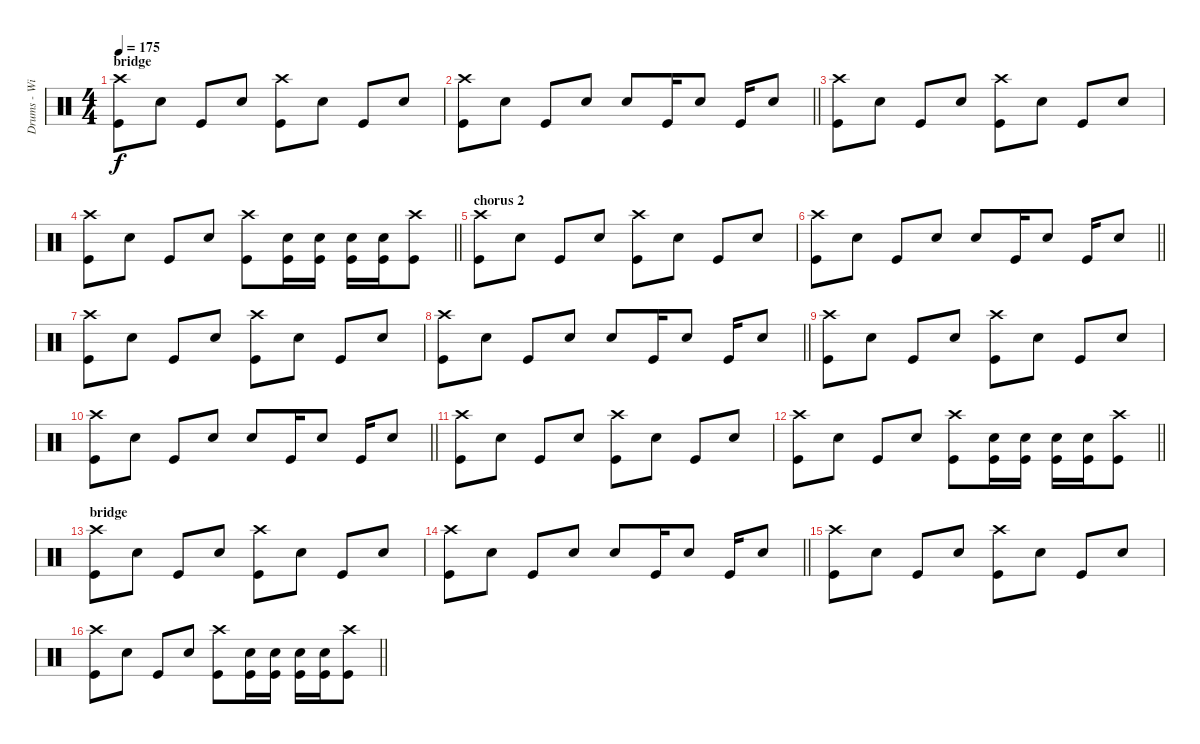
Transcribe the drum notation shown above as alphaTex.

\track ("Drums - Willie Buchan" "Drums - Wi") {instrument percussion}
\staff {score}
\articulation defaults
\ts (4 4)
\section ("" "bridge")
\tempo 175
\clef neutral
\ks c
("Crash high (hit)" "Kick (hit)").8{dy f} "Snare (hit) 2".8 "Kick (hit)".8 "Snare (hit) 2".8 ("Crash high (hit)" "Kick (hit)").8 "Snare (hit) 2".8 "Kick (hit)".8 "Snare (hit) 2".8 |
\barLineRight lightlight
("Crash high (hit)" "Kick (hit)").8 "Snare (hit) 2".8 "Kick (hit)".8 "Snare (hit) 2".8 "Snare (hit) 2".8 "Kick (hit)".16 "Snare (hit) 2".8 "Kick (hit)".16 "Snare (hit) 2".8 |
("Crash high (hit)" "Kick (hit)").8 "Snare (hit) 2".8 "Kick (hit)".8 "Snare (hit) 2".8 ("Crash high (hit)" "Kick (hit)").8 "Snare (hit) 2".8 "Kick (hit)".8 "Snare (hit) 2".8 |
\barLineRight lightlight
("Crash high (hit)" "Kick (hit)").8 "Snare (hit) 2".8 "Kick (hit)".8 "Snare (hit) 2".8 ("Crash high (hit)" "Kick (hit)").8 ("Snare (hit) 2" "Kick (hit)").16 ("Snare (hit) 2" "Kick (hit)").16 ("Snare (hit) 2" "Kick (hit)").16 ("Snare (hit) 2" "Kick (hit)").16 ("Crash high (hit)" "Kick (hit)").8 |
\section ("" "chorus 2")
("Crash high (hit)" "Kick (hit)").8 "Snare (hit) 2".8 "Kick (hit)".8 "Snare (hit) 2".8 ("Crash high (hit)" "Kick (hit)").8 "Snare (hit) 2".8 "Kick (hit)".8 "Snare (hit) 2".8 |
\barLineRight lightlight
("Crash high (hit)" "Kick (hit)").8 "Snare (hit) 2".8 "Kick (hit)".8 "Snare (hit) 2".8 "Snare (hit) 2".8 "Kick (hit)".16 "Snare (hit) 2".8 "Kick (hit)".16 "Snare (hit) 2".8 |
("Crash high (hit)" "Kick (hit)").8 "Snare (hit) 2".8 "Kick (hit)".8 "Snare (hit) 2".8 ("Crash high (hit)" "Kick (hit)").8 "Snare (hit) 2".8 "Kick (hit)".8 "Snare (hit) 2".8 |
\barLineRight lightlight
("Crash high (hit)" "Kick (hit)").8 "Snare (hit) 2".8 "Kick (hit)".8 "Snare (hit) 2".8 "Snare (hit) 2".8 "Kick (hit)".16 "Snare (hit) 2".8 "Kick (hit)".16 "Snare (hit) 2".8 |
("Crash high (hit)" "Kick (hit)").8 "Snare (hit) 2".8 "Kick (hit)".8 "Snare (hit) 2".8 ("Crash high (hit)" "Kick (hit)").8 "Snare (hit) 2".8 "Kick (hit)".8 "Snare (hit) 2".8 |
\barLineRight lightlight
("Crash high (hit)" "Kick (hit)").8 "Snare (hit) 2".8 "Kick (hit)".8 "Snare (hit) 2".8 "Snare (hit) 2".8 "Kick (hit)".16 "Snare (hit) 2".8 "Kick (hit)".16 "Snare (hit) 2".8 |
("Crash high (hit)" "Kick (hit)").8 "Snare (hit) 2".8 "Kick (hit)".8 "Snare (hit) 2".8 ("Crash high (hit)" "Kick (hit)").8 "Snare (hit) 2".8 "Kick (hit)".8 "Snare (hit) 2".8 |
\barLineRight lightlight
("Crash high (hit)" "Kick (hit)").8 "Snare (hit) 2".8 "Kick (hit)".8 "Snare (hit) 2".8 ("Crash high (hit)" "Kick (hit)").8 ("Snare (hit) 2" "Kick (hit)").16 ("Snare (hit) 2" "Kick (hit)").16 ("Snare (hit) 2" "Kick (hit)").16 ("Snare (hit) 2" "Kick (hit)").16 ("Crash high (hit)" "Kick (hit)").8 |
\section ("" "bridge")
("Crash high (hit)" "Kick (hit)").8 "Snare (hit) 2".8 "Kick (hit)".8 "Snare (hit) 2".8 ("Crash high (hit)" "Kick (hit)").8 "Snare (hit) 2".8 "Kick (hit)".8 "Snare (hit) 2".8 |
\barLineRight lightlight
("Crash high (hit)" "Kick (hit)").8 "Snare (hit) 2".8 "Kick (hit)".8 "Snare (hit) 2".8 "Snare (hit) 2".8 "Kick (hit)".16 "Snare (hit) 2".8 "Kick (hit)".16 "Snare (hit) 2".8 |
("Crash high (hit)" "Kick (hit)").8 "Snare (hit) 2".8 "Kick (hit)".8 "Snare (hit) 2".8 ("Crash high (hit)" "Kick (hit)").8 "Snare (hit) 2".8 "Kick (hit)".8 "Snare (hit) 2".8 |
\barLineRight lightlight
("Crash high (hit)" "Kick (hit)").8 "Snare (hit) 2".8 "Kick (hit)".8 "Snare (hit) 2".8 ("Crash high (hit)" "Kick (hit)").8 ("Snare (hit) 2" "Kick (hit)").16 ("Snare (hit) 2" "Kick (hit)").16 ("Snare (hit) 2" "Kick (hit)").16 ("Snare (hit) 2" "Kick (hit)").16 ("Crash high (hit)" "Kick (hit)").8
